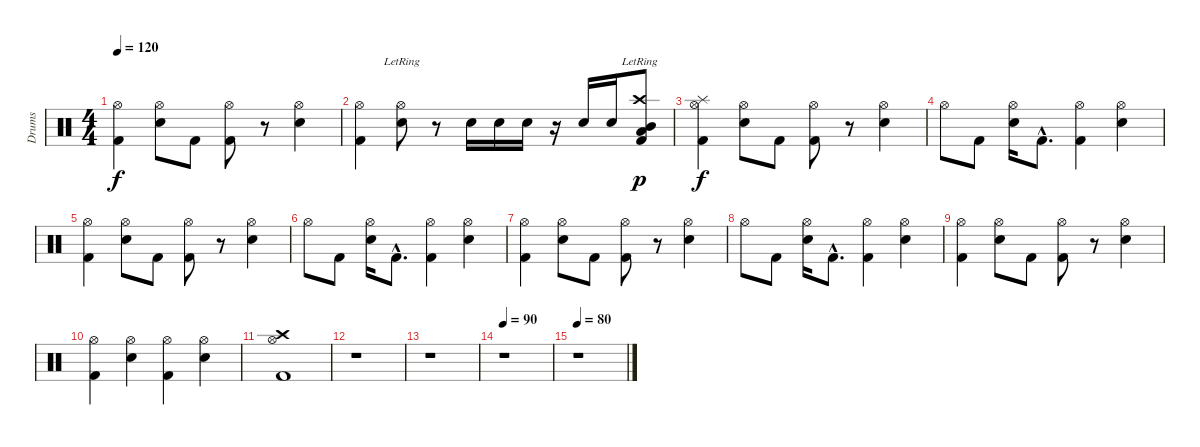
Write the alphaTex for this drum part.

\track ("Drums" "Drums") {instrument percussion}
\staff {score}
\articulation defaults
\ts (4 4)
\tempo 120
\clef neutral
\ks c
("Hi-Hat (open)" "Kick (hit) 2").4{dy f} ("Hi-Hat (open)" "Snare (hit) 2").8 "Kick (hit) 2".8 ("Hi-Hat (open)" "Kick (hit) 2").8 r.8 ("Hi-Hat (open)" "Snare (hit) 2").4 |
("Hi-Hat (open)" "Kick (hit) 2").4 ("Hi-Hat (open)"{lr} "Snare (hit) 2").8 r.8 "Snare (hit) 2".16 "Snare (hit) 2".16 "Snare (hit) 2".16 r.16 "Snare (hit) 2".16 "Snare (hit) 2".16 ("Crash high (hit)"{lr} "Low Tom (hit)" "Mid Tom (hit)" "Kick (hit) 2").8{dy p} |
("Hi-Hat (open)" "Splash (hit)" "Kick (hit) 2").4{dy f} ("Hi-Hat (open)" "Snare (hit) 2").8 "Kick (hit) 2".8 ("Hi-Hat (open)" "Kick (hit) 2").8 r.8 ("Hi-Hat (open)" "Snare (hit) 2").4 |
"Hi-Hat (open)".8 "Kick (hit) 2".8 ("Hi-Hat (open)" "Snare (hit) 2").16 "Kick (hit) 2"{hac}.8{d} ("Hi-Hat (open)" "Kick (hit) 2").4 ("Hi-Hat (open)" "Snare (hit) 2").4 |
("Hi-Hat (open)" "Kick (hit) 2").4 ("Hi-Hat (open)" "Snare (hit) 2").8 "Kick (hit) 2".8 ("Hi-Hat (open)" "Kick (hit) 2").8 r.8 ("Hi-Hat (open)" "Snare (hit) 2").4 |
"Hi-Hat (open)".8 "Kick (hit) 2".8 ("Hi-Hat (open)" "Snare (hit) 2").16 "Kick (hit) 2"{hac}.8{d} ("Hi-Hat (open)" "Kick (hit) 2").4 ("Hi-Hat (open)" "Snare (hit) 2").4 |
("Hi-Hat (open)" "Kick (hit) 2").4 ("Hi-Hat (open)" "Snare (hit) 2").8 "Kick (hit) 2".8 ("Hi-Hat (open)" "Kick (hit) 2").8 r.8 ("Hi-Hat (open)" "Snare (hit) 2").4 |
"Hi-Hat (open)".8 "Kick (hit) 2".8 ("Hi-Hat (open)" "Snare (hit) 2").16 "Kick (hit) 2"{hac}.8{d} ("Hi-Hat (open)" "Kick (hit) 2").4 ("Hi-Hat (open)" "Snare (hit) 2").4 |
("Hi-Hat (open)" "Kick (hit) 2").4 ("Hi-Hat (open)" "Snare (hit) 2").8 "Kick (hit) 2".8 ("Hi-Hat (open)" "Kick (hit) 2").8 r.8 ("Hi-Hat (open)" "Snare (hit) 2").4 |
("Hi-Hat (open)" "Kick (hit) 2").4 ("Hi-Hat (open)" "Snare (hit) 2").4 ("Hi-Hat (open)" "Kick (hit) 2").4 ("Hi-Hat (open)" "Snare (hit) 2").4 |
("Hi-Hat (open)" "Crash high (hit)" "Kick (hit) 2").1 |
r.1 |
r.1 |
\tempo 90
r.1 |
\tempo 80
r.1
